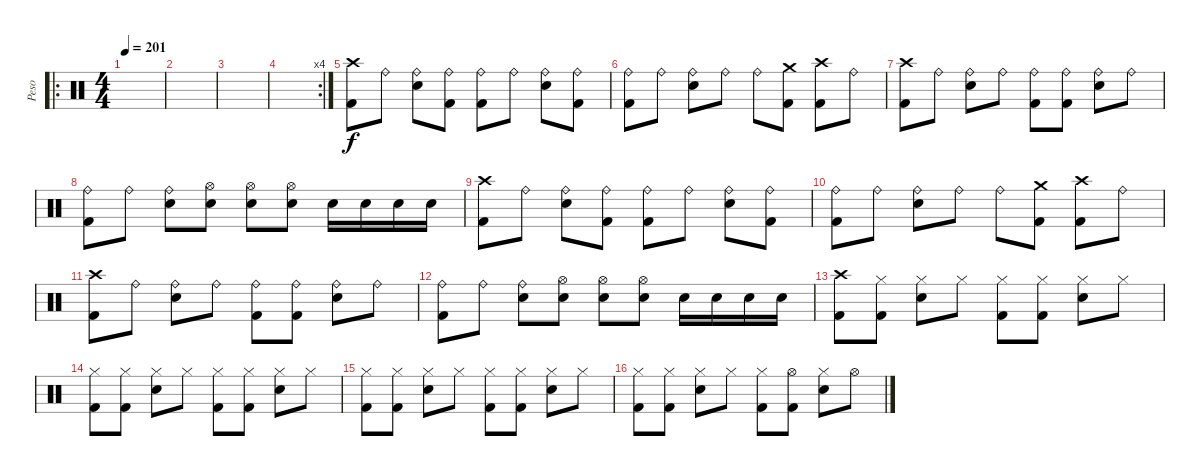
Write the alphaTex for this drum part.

\track ("Peso" "Peso") {instrument percussion}
\staff {score}
\articulation defaults
\ro
\ts (4 4)
\tempo 201
\clef neutral
\ks c
|
|
|
\rc 4
|
("Crash high (hit)" "Kick (hit) 2").8 "Ride (bell)".8 ("Ride (bell)" "Snare (hit) 2").8 ("Ride (bell)" "Kick (hit) 2").8 ("Ride (bell)" "Kick (hit) 2").8 "Ride (bell)".8 ("Ride (bell)" "Snare (hit) 2").8 ("Ride (bell)" "Kick (hit) 2").8 |
("Ride (bell)" "Kick (hit) 2").8 "Ride (bell)".8 ("Ride (bell)" "Snare (hit) 2").8 "Ride (bell)".8 "Ride (bell)".8 ("Crash medium (hit)" "Kick (hit) 2").8 ("Crash high (hit)" "Kick (hit) 2").8 "Ride (bell)".8 |
("Crash high (hit)" "Kick (hit) 2").8 "Ride (bell)".8 ("Ride (bell)" "Snare (hit) 2").8 "Ride (bell)".8 ("Ride (bell)" "Kick (hit) 2").8 ("Ride (bell)" "Kick (hit) 2").8 ("Ride (bell)" "Snare (hit) 2").8 "Ride (bell)".8 |
("Ride (bell)" "Kick (hit) 2").8 "Ride (bell)".8 ("Ride (bell)" "Snare (hit) 2").8 ("Hi-Hat (open)" "Snare (hit) 2").8 ("Hi-Hat (open)" "Snare (hit) 2").8 ("Hi-Hat (open)" "Snare (hit) 2").8 "Snare (hit) 2".16 "Snare (hit) 2".16 "Snare (hit) 2".16 "Snare (hit) 2".16 |
("Crash high (hit)" "Kick (hit) 2").8 "Ride (bell)".8 ("Ride (bell)" "Snare (hit) 2").8 ("Ride (bell)" "Kick (hit) 2").8 ("Ride (bell)" "Kick (hit) 2").8 "Ride (bell)".8 ("Ride (bell)" "Snare (hit) 2").8 ("Ride (bell)" "Kick (hit) 2").8 |
("Ride (bell)" "Kick (hit) 2").8 "Ride (bell)".8 ("Ride (bell)" "Snare (hit) 2").8 "Ride (bell)".8 "Ride (bell)".8 ("Crash medium (hit)" "Kick (hit) 2").8 ("Crash high (hit)" "Kick (hit) 2").8 "Ride (bell)".8 |
("Crash high (hit)" "Kick (hit) 2").8 "Ride (bell)".8 ("Ride (bell)" "Snare (hit) 2").8 "Ride (bell)".8 ("Ride (bell)" "Kick (hit) 2").8 ("Ride (bell)" "Kick (hit) 2").8 ("Ride (bell)" "Snare (hit) 2").8 "Ride (bell)".8 |
("Ride (bell)" "Kick (hit) 2").8 "Ride (bell)".8 ("Ride (bell)" "Snare (hit) 2").8 ("Hi-Hat (open)" "Snare (hit) 2").8 ("Hi-Hat (open)" "Snare (hit) 2").8 ("Hi-Hat (open)" "Snare (hit) 2").8 "Snare (hit) 2".16 "Snare (hit) 2".16 "Snare (hit) 2".16 "Snare (hit) 2".16 |
("Crash high (hit)" "Kick (hit) 2").8 ("Hi-Hat (closed)" "Kick (hit) 2").8 ("Hi-Hat (closed)" "Snare (hit) 2").8 "Hi-Hat (closed)".8 ("Hi-Hat (closed)" "Kick (hit) 2").8 ("Hi-Hat (closed)" "Kick (hit) 2").8 ("Hi-Hat (closed)" "Snare (hit) 2").8 "Hi-Hat (closed)".8 |
("Hi-Hat (closed)" "Kick (hit) 2").8 ("Hi-Hat (closed)" "Kick (hit) 2").8 ("Hi-Hat (closed)" "Snare (hit) 2").8 "Hi-Hat (closed)".8 ("Hi-Hat (closed)" "Kick (hit) 2").8 ("Hi-Hat (closed)" "Kick (hit) 2").8 ("Hi-Hat (closed)" "Snare (hit) 2").8 "Hi-Hat (closed)".8 |
("Hi-Hat (closed)" "Kick (hit) 2").8 ("Hi-Hat (closed)" "Kick (hit) 2").8 ("Hi-Hat (closed)" "Snare (hit) 2").8 "Hi-Hat (closed)".8 ("Hi-Hat (closed)" "Kick (hit) 2").8 ("Hi-Hat (closed)" "Kick (hit) 2").8 ("Hi-Hat (closed)" "Snare (hit) 2").8 "Hi-Hat (closed)".8 |
("Hi-Hat (closed)" "Kick (hit) 2").8 ("Hi-Hat (closed)" "Kick (hit) 2").8 ("Hi-Hat (closed)" "Snare (hit) 2").8 "Hi-Hat (closed)".8 ("Hi-Hat (closed)" "Kick (hit) 2").8 ("Hi-Hat (open)" "Kick (hit) 2").8 ("Hi-Hat (closed)" "Snare (hit) 2").8 "Hi-Hat (open)".8
